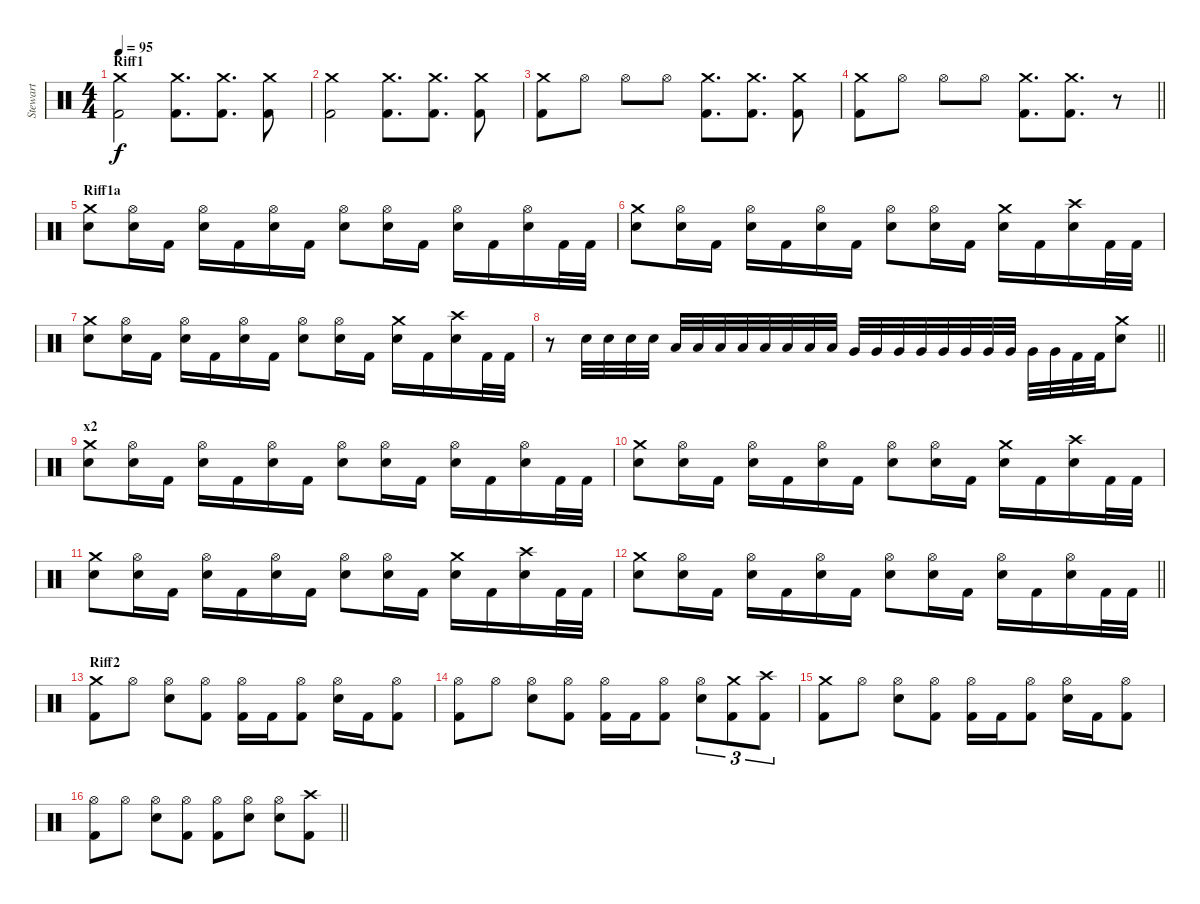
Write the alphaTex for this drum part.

\track ("Stewart" "Stewart") {instrument percussion}
\staff {score}
\articulation defaults
\ts (4 4)
\section ("" "Riff1")
\tempo 95
\clef neutral
\ks c
("Crash medium (hit)" "Kick (hit) 2").2{dy f} ("Crash medium (hit)" "Kick (hit) 2").8{d} ("Crash medium (hit)" "Kick (hit) 2").8{d} ("Crash medium (hit)" "Kick (hit) 2").8 |
("Crash medium (hit)" "Kick (hit) 2").2 ("Crash medium (hit)" "Kick (hit) 2").8{d} ("Crash medium (hit)" "Kick (hit) 2").8{d} ("Crash medium (hit)" "Kick (hit) 2").8 |
("Crash medium (hit)" "Kick (hit) 2").8 "Hi-Hat (open)".8 "Hi-Hat (open)".8 "Hi-Hat (open)".8 ("Crash medium (hit)" "Kick (hit) 2").8{d} ("Crash medium (hit)" "Kick (hit) 2").8{d} ("Crash medium (hit)" "Kick (hit) 2").8 |
\barLineRight lightlight
("Crash medium (hit)" "Kick (hit) 2").8 "Hi-Hat (open)".8 "Hi-Hat (open)".8 "Hi-Hat (open)".8 ("Crash medium (hit)" "Kick (hit) 2").8{d} ("Crash medium (hit)" "Kick (hit) 2").8{d} r.8 |
\section ("" "Riff1a")
("Crash medium (hit)" "Electric Snare (hit)").8 ("Hi-Hat (open)" "Electric Snare (hit)").16 "Kick (hit) 2".16 ("Hi-Hat (open)" "Electric Snare (hit)").16 "Kick (hit) 2".16 ("Hi-Hat (open)" "Electric Snare (hit)").16 "Kick (hit) 2".16 ("Hi-Hat (open)" "Electric Snare (hit)").8 ("Hi-Hat (open)" "Electric Snare (hit)").16 "Kick (hit) 2".16 ("Hi-Hat (open)" "Electric Snare (hit)").16 "Kick (hit) 2".16 ("Hi-Hat (open)" "Electric Snare (hit)").16 "Kick (hit) 2".32 "Kick (hit) 2".32 |
("Crash medium (hit)" "Electric Snare (hit)").8 ("Hi-Hat (open)" "Electric Snare (hit)").16 "Kick (hit) 2".16 ("Hi-Hat (open)" "Electric Snare (hit)").16 "Kick (hit) 2".16 ("Hi-Hat (open)" "Electric Snare (hit)").16 "Kick (hit) 2".16 ("Hi-Hat (open)" "Electric Snare (hit)").8 ("Hi-Hat (open)" "Electric Snare (hit)").16 "Kick (hit) 2".16 ("Crash medium (hit)" "Electric Snare (hit)").16 "Kick (hit) 2".16 ("Crash high (hit)" "Electric Snare (hit)").16 "Kick (hit) 2".32 "Kick (hit) 2".32 |
("Crash medium (hit)" "Electric Snare (hit)").8 ("Hi-Hat (open)" "Electric Snare (hit)").16 "Kick (hit) 2".16 ("Hi-Hat (open)" "Electric Snare (hit)").16 "Kick (hit) 2".16 ("Hi-Hat (open)" "Electric Snare (hit)").16 "Kick (hit) 2".16 ("Hi-Hat (open)" "Electric Snare (hit)").8 ("Hi-Hat (open)" "Electric Snare (hit)").16 "Kick (hit) 2".16 ("Crash medium (hit)" "Electric Snare (hit)").16 "Kick (hit) 2".16 ("Crash high (hit)" "Electric Snare (hit)").16 "Kick (hit) 2".32 "Kick (hit) 2".32 |
\barLineRight lightlight
r.8 "Electric Snare (hit)".32 "Electric Snare (hit)".32 "Electric Snare (hit)".32 "Electric Snare (hit)".32 "Low Tom (hit)".32 "Low Tom (hit)".32 "Low Tom (hit)".32 "Low Tom (hit)".32 "Low Tom (hit)".32 "Low Tom (hit)".32 "Low Tom (hit)".32 "Low Tom (hit)".32 "Very Low Tom (hit)".32 "Very Low Tom (hit)".32 "Very Low Tom (hit)".32 "Very Low Tom (hit)".32 "Very Low Tom (hit)".32 "Very Low Tom (hit)".32 "Very Low Tom (hit)".32 "Very Low Tom (hit)".32 "Very Low Tom (hit)".32 "Very Low Tom (hit)".32 "Kick (hit) 2".32 "Kick (hit) 2".32 ("Crash medium (hit)" "Electric Snare (hit)").8 |
\section ("" "x2")
("Crash medium (hit)" "Electric Snare (hit)").8 ("Hi-Hat (open)" "Electric Snare (hit)").16 "Kick (hit) 2".16 ("Hi-Hat (open)" "Electric Snare (hit)").16 "Kick (hit) 2".16 ("Hi-Hat (open)" "Electric Snare (hit)").16 "Kick (hit) 2".16 ("Hi-Hat (open)" "Electric Snare (hit)").8 ("Hi-Hat (open)" "Electric Snare (hit)").16 "Kick (hit) 2".16 ("Hi-Hat (open)" "Electric Snare (hit)").16 "Kick (hit) 2".16 ("Hi-Hat (open)" "Electric Snare (hit)").16 "Kick (hit) 2".32 "Kick (hit) 2".32 |
("Crash medium (hit)" "Electric Snare (hit)").8 ("Hi-Hat (open)" "Electric Snare (hit)").16 "Kick (hit) 2".16 ("Hi-Hat (open)" "Electric Snare (hit)").16 "Kick (hit) 2".16 ("Hi-Hat (open)" "Electric Snare (hit)").16 "Kick (hit) 2".16 ("Hi-Hat (open)" "Electric Snare (hit)").8 ("Hi-Hat (open)" "Electric Snare (hit)").16 "Kick (hit) 2".16 ("Crash medium (hit)" "Electric Snare (hit)").16 "Kick (hit) 2".16 ("Crash high (hit)" "Electric Snare (hit)").16 "Kick (hit) 2".32 "Kick (hit) 2".32 |
("Crash medium (hit)" "Electric Snare (hit)").8 ("Hi-Hat (open)" "Electric Snare (hit)").16 "Kick (hit) 2".16 ("Hi-Hat (open)" "Electric Snare (hit)").16 "Kick (hit) 2".16 ("Hi-Hat (open)" "Electric Snare (hit)").16 "Kick (hit) 2".16 ("Hi-Hat (open)" "Electric Snare (hit)").8 ("Hi-Hat (open)" "Electric Snare (hit)").16 "Kick (hit) 2".16 ("Crash medium (hit)" "Electric Snare (hit)").16 "Kick (hit) 2".16 ("Crash high (hit)" "Electric Snare (hit)").16 "Kick (hit) 2".32 "Kick (hit) 2".32 |
\barLineRight lightlight
("Crash medium (hit)" "Electric Snare (hit)").8 ("Hi-Hat (open)" "Electric Snare (hit)").16 "Kick (hit) 2".16 ("Hi-Hat (open)" "Electric Snare (hit)").16 "Kick (hit) 2".16 ("Hi-Hat (open)" "Electric Snare (hit)").16 "Kick (hit) 2".16 ("Hi-Hat (open)" "Electric Snare (hit)").8 ("Hi-Hat (open)" "Electric Snare (hit)").16 "Kick (hit) 2".16 ("Hi-Hat (open)" "Electric Snare (hit)").16 "Kick (hit) 2".16 ("Hi-Hat (open)" "Electric Snare (hit)").16 "Kick (hit) 2".32 "Kick (hit) 2".32 |
\section ("" "Riff2")
("Crash medium (hit)" "Kick (hit) 2").8 "Hi-Hat (open)".8 ("Hi-Hat (open)" "Electric Snare (hit)").8 ("Hi-Hat (open)" "Kick (hit) 2").8 ("Hi-Hat (open)" "Kick (hit) 2").16 "Kick (hit) 2".16 ("Hi-Hat (open)" "Kick (hit) 2").8 ("Hi-Hat (open)" "Electric Snare (hit)").16 "Kick (hit) 2".16 ("Hi-Hat (open)" "Kick (hit) 2").8 |
("Hi-Hat (open)" "Kick (hit) 2").8 "Hi-Hat (open)".8 ("Hi-Hat (open)" "Electric Snare (hit)").8 ("Hi-Hat (open)" "Kick (hit) 2").8 ("Hi-Hat (open)" "Kick (hit) 2").16 "Kick (hit) 2".16 ("Hi-Hat (open)" "Kick (hit) 2").8 ("Hi-Hat (open)" "Electric Snare (hit)").8{tu (3 2)} ("Crash medium (hit)" "Kick (hit) 2").8{tu (3 2)} ("Crash high (hit)" "Kick (hit) 2").8{tu (3 2)} |
("Crash medium (hit)" "Kick (hit) 2").8 "Hi-Hat (open)".8 ("Hi-Hat (open)" "Electric Snare (hit)").8 ("Hi-Hat (open)" "Kick (hit) 2").8 ("Hi-Hat (open)" "Kick (hit) 2").16 "Kick (hit) 2".16 ("Hi-Hat (open)" "Kick (hit) 2").8 ("Hi-Hat (open)" "Electric Snare (hit)").16 "Kick (hit) 2".16 ("Hi-Hat (open)" "Kick (hit) 2").8 |
\barLineRight lightlight
("Hi-Hat (open)" "Kick (hit) 2").8 "Hi-Hat (open)".8 ("Hi-Hat (open)" "Electric Snare (hit)").8 ("Hi-Hat (open)" "Kick (hit) 2").8 ("Hi-Hat (open)" "Kick (hit) 2").8 ("Hi-Hat (open)" "Electric Snare (hit)").8 ("Hi-Hat (open)" "Electric Snare (hit)").8 ("Crash high (hit)" "Kick (hit) 2").8
